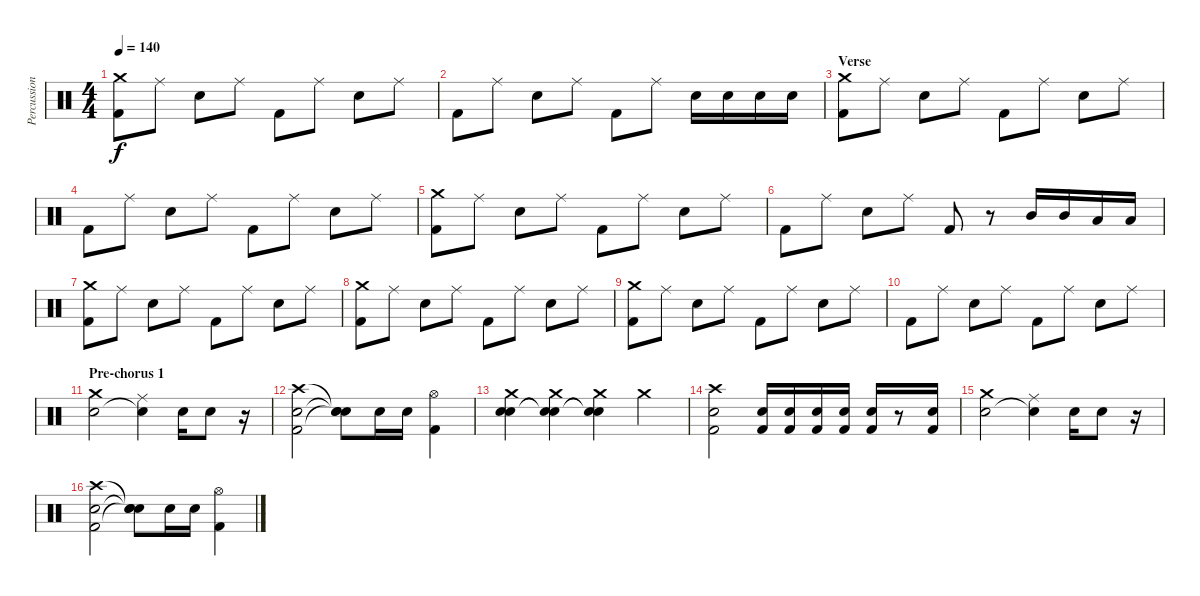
\track ("Percussion" "Percussion") {instrument percussion}
\staff {score}
\articulation defaults
\ts (4 4)
\tempo 140
\clef neutral
\ks c
("Crash medium (hit)" "Kick (hit) 2").8{dy f} "Ride (middle)".8 "Electric Snare (hit)".8 "Ride (middle)".8 "Kick (hit) 2".8 "Ride (middle)".8 "Electric Snare (hit)".8 "Ride (middle)".8 |
"Kick (hit) 2".8 "Ride (middle)".8 "Electric Snare (hit)".8 "Ride (middle)".8 "Kick (hit) 2".8 "Ride (middle)".8 "Electric Snare (hit)".16 "Electric Snare (hit)".16 "Electric Snare (hit)".16 "Electric Snare (hit)".16 |
\section ("" "Verse")
("Crash medium (hit)" "Kick (hit) 2").8 "Ride (middle)".8 "Electric Snare (hit)".8 "Ride (middle)".8 "Kick (hit) 2".8 "Ride (middle)".8 "Electric Snare (hit)".8 "Ride (middle)".8 |
"Kick (hit) 2".8 "Ride (middle)".8 "Electric Snare (hit)".8 "Ride (middle)".8 "Kick (hit) 2".8 "Ride (middle)".8 "Electric Snare (hit)".8 "Ride (middle)".8 |
("Crash medium (hit)" "Kick (hit) 2").8 "Ride (middle)".8 "Electric Snare (hit)".8 "Ride (middle)".8 "Kick (hit) 2".8 "Ride (middle)".8 "Electric Snare (hit)".8 "Ride (middle)".8 |
"Kick (hit) 2".8 "Ride (middle)".8 "Electric Snare (hit)".8 "Ride (middle)".8 "Kick (hit) 2".8 r.8 "Mid Tom (hit)".16 "Mid Tom (hit)".16 "Low Tom (hit)".16 "Low Tom (hit)".16 |
("Crash medium (hit)" "Kick (hit) 2").8 "Ride (middle)".8 "Electric Snare (hit)".8 "Ride (middle)".8 "Kick (hit) 2".8 "Ride (middle)".8 "Electric Snare (hit)".8 "Ride (middle)".8 |
("Crash medium (hit)" "Kick (hit) 2").8 "Ride (middle)".8 "Electric Snare (hit)".8 "Ride (middle)".8 "Kick (hit) 2".8 "Ride (middle)".8 "Electric Snare (hit)".8 "Ride (middle)".8 |
("Crash medium (hit)" "Kick (hit) 2").8 "Ride (middle)".8 "Electric Snare (hit)".8 "Ride (middle)".8 "Kick (hit) 2".8 "Ride (middle)".8 "Electric Snare (hit)".8 "Ride (middle)".8 |
"Kick (hit) 2".8 "Ride (middle)".8 "Electric Snare (hit)".8 "Ride (middle)".8 "Kick (hit) 2".8 "Ride (middle)".8 "Electric Snare (hit)".8 "Ride (middle)".8 |
\section ("" "Pre-chorus 1")
("Crash medium (hit)" "Electric Snare (hit)").2 ("Ride (middle)" "Snare (hit)"{t}).4 "Electric Snare (hit)".16 "Electric Snare (hit)".8 r.16 |
("Crash high (hit)" "Electric Snare (hit)" "Kick (hit) 2").2 ("Snare (hit)"{t} "Snare (hit)"{t} "Snare (hit)"{t}).8 "Electric Snare (hit)".16 "Electric Snare (hit)".16 ("Hi-Hat (open)" "Kick (hit) 2").4 |
("Crash medium (hit)" "Electric Snare (hit)" "Snare (hit)").4 ("Crash medium (hit)" "Snare (hit)"{t} "Snare (hit)"{t}).4 ("Crash medium (hit)" "Snare (hit)"{t} "Snare (hit)"{t}).4 "Crash medium (hit)".4 |
("Crash high (hit)" "Electric Snare (hit)" "Kick (hit) 2").2 ("Electric Snare (hit)" "Kick (hit) 2").16 ("Electric Snare (hit)" "Kick (hit) 2").16 ("Electric Snare (hit)" "Kick (hit) 2").16 ("Electric Snare (hit)" "Kick (hit) 2").16 ("Electric Snare (hit)" "Kick (hit) 2").16 r.8 ("Electric Snare (hit)" "Kick (hit) 2").16 |
("Crash medium (hit)" "Electric Snare (hit)").2 ("Ride (middle)" "Snare (hit)"{t}).4 "Electric Snare (hit)".16 "Electric Snare (hit)".8 r.16 |
("Crash high (hit)" "Electric Snare (hit)" "Kick (hit) 2").2 ("Snare (hit)"{t} "Snare (hit)"{t} "Snare (hit)"{t}).8 "Electric Snare (hit)".16 "Electric Snare (hit)".16 ("Hi-Hat (open)" "Kick (hit) 2").4
